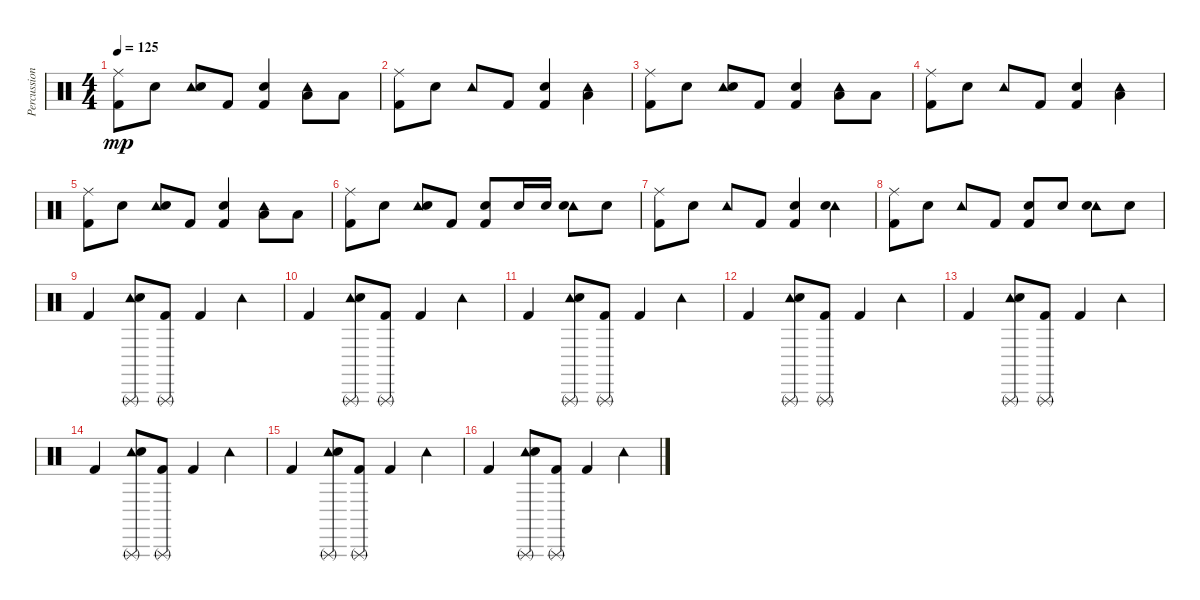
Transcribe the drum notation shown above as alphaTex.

\track ("Percussion" "Percussion") {instrument percussion}
\staff {score}
\articulation defaults
\ts (4 4)
\tempo 125
\clef neutral
\ks c
("Ride (middle)" "Kick (hit) 2").8{dy mp} "Snare (hit) 2".8 ("Tambourine (hit)" "Snare (hit) 2").8 "Kick (hit) 2".8 ("Kick (hit) 2" "Snare (hit) 2").4 ("Tambourine (hit)" "Low Tom (hit)").8 "Low Tom (hit)".8 |
("Ride (middle)" "Kick (hit) 2").8 "Snare (hit) 2".8 "Tambourine (hit)".8 "Kick (hit) 2".8 ("Kick (hit) 2" "Snare (hit) 2").4 ("Tambourine (hit)" "Low Tom (hit)").4 |
("Ride (middle)" "Kick (hit) 2").8 "Snare (hit) 2".8 ("Tambourine (hit)" "Snare (hit) 2").8 "Kick (hit) 2".8 ("Kick (hit) 2" "Snare (hit) 2").4 ("Tambourine (hit)" "Low Tom (hit)").8 "Low Tom (hit)".8 |
("Ride (middle)" "Kick (hit) 2").8 "Snare (hit) 2".8 "Tambourine (hit)".8 "Kick (hit) 2".8 ("Kick (hit) 2" "Snare (hit) 2").4 ("Tambourine (hit)" "Low Tom (hit)").4 |
("Ride (middle)" "Kick (hit) 2").8 "Snare (hit) 2".8 ("Tambourine (hit)" "Snare (hit) 2").8 "Kick (hit) 2".8 ("Kick (hit) 2" "Snare (hit) 2").4 ("Tambourine (hit)" "Low Tom (hit)").8 "Low Tom (hit)".8 |
("Ride (middle)" "Kick (hit) 2").8 "Snare (hit) 2".8 ("Tambourine (hit)" "Snare (hit) 2").8 "Kick (hit) 2".8 ("Kick (hit) 2" "Snare (hit) 2").8 "Snare (hit) 2".16 "Snare (hit) 2".16 ("Tambourine (hit)" "Snare (hit) 2").8 "Snare (hit) 2".8 |
("Ride (middle)" "Kick (hit) 2").8 "Snare (hit) 2".8 "Tambourine (hit)".8 "Kick (hit) 2".8 ("Kick (hit) 2" "Snare (hit) 2").4 ("Tambourine (hit)" "Snare (hit) 2").4 |
("Ride (middle)" "Kick (hit) 2").8 "Snare (hit) 2".8 "Tambourine (hit)".8 "Kick (hit) 2".8 ("Kick (hit) 2" "Snare (hit) 2").8 "Snare (hit) 2".8 ("Tambourine (hit)" "Snare (hit) 2").8 "Snare (hit) 2".8 |
"Kick (hit) 2".4 ("Triangle (rnute)" "Tambourine (hit)" "Snare (hit) 2").8 ("Triangle (rnute)" "Kick (hit) 2").8 "Kick (hit) 2".4 "Tambourine (hit)".4 |
"Kick (hit) 2".4 ("Triangle (rnute)" "Tambourine (hit)" "Snare (hit) 2").8 ("Triangle (rnute)" "Kick (hit) 2").8 "Kick (hit) 2".4 "Tambourine (hit)".4 |
"Kick (hit) 2".4 ("Triangle (rnute)" "Tambourine (hit)" "Snare (hit) 2").8 ("Triangle (rnute)" "Kick (hit) 2").8 "Kick (hit) 2".4 "Tambourine (hit)".4 |
"Kick (hit) 2".4 ("Triangle (rnute)" "Tambourine (hit)" "Snare (hit) 2").8 ("Triangle (rnute)" "Kick (hit) 2").8 "Kick (hit) 2".4 "Tambourine (hit)".4 |
"Kick (hit) 2".4 ("Triangle (rnute)" "Tambourine (hit)" "Snare (hit) 2").8 ("Triangle (rnute)" "Kick (hit) 2").8 "Kick (hit) 2".4 "Tambourine (hit)".4 |
"Kick (hit) 2".4 ("Triangle (rnute)" "Tambourine (hit)" "Snare (hit) 2").8 ("Triangle (rnute)" "Kick (hit) 2").8 "Kick (hit) 2".4 "Tambourine (hit)".4 |
"Kick (hit) 2".4 ("Triangle (rnute)" "Tambourine (hit)" "Snare (hit) 2").8 ("Triangle (rnute)" "Kick (hit) 2").8 "Kick (hit) 2".4 "Tambourine (hit)".4 |
"Kick (hit) 2".4 ("Triangle (rnute)" "Tambourine (hit)" "Snare (hit) 2").8 ("Triangle (rnute)" "Kick (hit) 2").8 "Kick (hit) 2".4 "Tambourine (hit)".4
